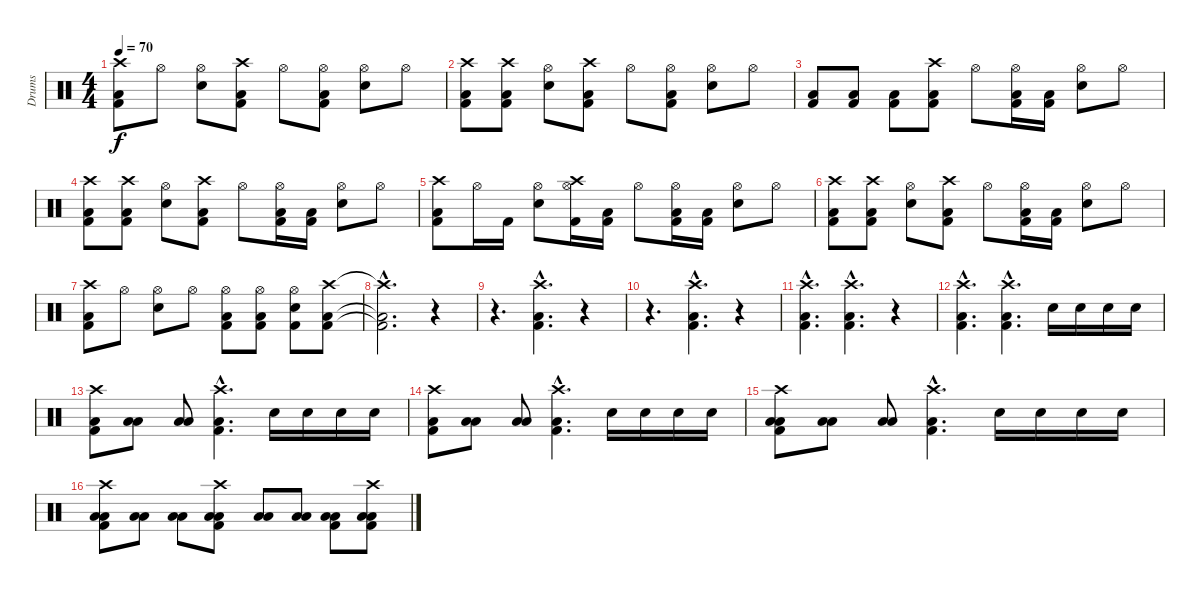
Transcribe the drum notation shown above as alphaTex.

\track ("Drums" "Drums") {instrument percussion}
\staff {score}
\articulation defaults
\ts (4 4)
\tempo 70
\clef neutral
\ks c
("Crash high (hit)" "Low Floor Tom (hit)" "Kick (hit) 2").8{dy f} "Hi-Hat (open)".8 ("Hi-Hat (open)" "Snare (hit) 2").8 ("Crash high (hit)" "Low Floor Tom (hit)" "Kick (hit) 2").8 "Hi-Hat (open)".8 ("Hi-Hat (open)" "Low Floor Tom (hit)" "Kick (hit) 2").8 ("Hi-Hat (open)" "Snare (hit) 2").8 "Hi-Hat (open)".8 |
("Crash high (hit)" "Low Floor Tom (hit)" "Kick (hit) 2").8 ("Crash high (hit)" "Low Floor Tom (hit)" "Kick (hit) 2").8 ("Hi-Hat (open)" "Snare (hit) 2").8 ("Crash high (hit)" "Low Floor Tom (hit)" "Kick (hit) 2").8 "Hi-Hat (open)".8 ("Hi-Hat (open)" "Low Floor Tom (hit)" "Kick (hit) 2").8 ("Hi-Hat (open)" "Snare (hit) 2").8 "Hi-Hat (open)".8 |
("Low Floor Tom (hit)" "Kick (hit) 2").8 ("Low Floor Tom (hit)" "Kick (hit) 2").8 ("Low Floor Tom (hit)" "Kick (hit) 2").8 ("Crash high (hit)" "Low Floor Tom (hit)" "Kick (hit) 2").8 "Hi-Hat (open)".8 ("Hi-Hat (open)" "Low Floor Tom (hit)" "Kick (hit) 2").16 ("Low Floor Tom (hit)" "Kick (hit) 2").16 ("Hi-Hat (open)" "Snare (hit) 2").8 "Hi-Hat (open)".8 |
("Crash high (hit)" "Low Floor Tom (hit)" "Kick (hit) 2").8 ("Crash high (hit)" "Low Floor Tom (hit)" "Kick (hit) 2").8 ("Hi-Hat (open)" "Snare (hit) 2").8 ("Crash high (hit)" "Low Floor Tom (hit)" "Kick (hit) 2").8 "Hi-Hat (open)".8 ("Hi-Hat (open)" "Low Floor Tom (hit)" "Kick (hit) 2").16 ("Low Floor Tom (hit)" "Kick (hit) 2").16 ("Hi-Hat (open)" "Snare (hit) 2").8 "Hi-Hat (open)".8 |
("Crash high (hit)" "Low Floor Tom (hit)" "Kick (hit) 2").8 "Hi-Hat (open)".16 "Kick (hit) 2".16 ("Hi-Hat (open)" "Snare (hit) 2").8 ("Crash high (hit)" "Hi-Hat (open)" "Kick (hit) 2").16 ("Low Floor Tom (hit)" "Kick (hit) 2").16 "Hi-Hat (open)".8 ("Hi-Hat (open)" "Low Floor Tom (hit)" "Kick (hit) 2").16 ("Low Floor Tom (hit)" "Kick (hit) 2").16 ("Hi-Hat (open)" "Snare (hit) 2").8 "Hi-Hat (open)".8 |
("Crash high (hit)" "Low Floor Tom (hit)" "Kick (hit) 2").8 ("Crash high (hit)" "Low Floor Tom (hit)" "Kick (hit) 2").8 ("Hi-Hat (open)" "Snare (hit) 2").8 ("Crash high (hit)" "Low Floor Tom (hit)" "Kick (hit) 2").8 "Hi-Hat (open)".8 ("Hi-Hat (open)" "Low Floor Tom (hit)" "Kick (hit) 2").16 ("Low Floor Tom (hit)" "Kick (hit) 2").16 ("Hi-Hat (open)" "Snare (hit) 2").8 "Hi-Hat (open)".8 |
("Crash high (hit)" "Low Floor Tom (hit)" "Kick (hit) 2").8 "Hi-Hat (open)".8 ("Hi-Hat (open)" "Snare (hit) 2").8 "Hi-Hat (open)".8 ("Hi-Hat (open)" "Low Floor Tom (hit)" "Kick (hit) 2").8 ("Hi-Hat (open)" "Low Floor Tom (hit)" "Kick (hit) 2").8 ("Hi-Hat (open)" "Snare (hit) 2" "Kick (hit) 2").8 ("Crash high (hit)" "Low Floor Tom (hit)" "Kick (hit) 2").8 |
("Crash high (hit)"{hac t} "Low Floor Tom (hit)"{hac t} "Kick (hit) 2"{hac t}).2{d} r.4 |
r.4{d} ("Crash high (hit)"{hac} "Low Floor Tom (hit)"{hac} "Kick (hit) 2"{hac}).4{d} r.4 |
r.4{d} ("Crash high (hit)"{hac} "Low Floor Tom (hit)"{hac} "Kick (hit) 2"{hac}).4{d} r.4 |
("Crash high (hit)"{hac} "Low Floor Tom (hit)"{hac} "Kick (hit) 2"{hac}).4{d} ("Crash high (hit)"{hac} "Low Floor Tom (hit)"{hac} "Kick (hit) 2"{hac}).4{d} r.4 |
("Crash high (hit)"{hac} "Low Floor Tom (hit)"{hac} "Kick (hit) 2"{hac}).4{d} ("Crash high (hit)"{hac} "Low Floor Tom (hit)"{hac} "Kick (hit) 2"{hac}).4{d} "Snare (hit) 2".16 "Snare (hit) 2".16 "Snare (hit) 2".16 "Snare (hit) 2".16 |
("Crash high (hit)" "Low Floor Tom (hit)" "Kick (hit) 2").8 ("Low Floor Tom (hit)" "Low Tom (hit)").8 ("Low Floor Tom (hit)" "Low Tom (hit)").8 ("Crash high (hit)"{hac} "Low Floor Tom (hit)"{hac} "Kick (hit) 2"{hac}).4{d} "Snare (hit) 2".16 "Snare (hit) 2".16 "Snare (hit) 2".16 "Snare (hit) 2".16 |
("Crash high (hit)" "Low Floor Tom (hit)" "Kick (hit) 2").8 ("Low Floor Tom (hit)" "Low Tom (hit)").8 ("Low Floor Tom (hit)" "Low Tom (hit)").8 ("Crash high (hit)"{hac} "Low Floor Tom (hit)"{hac} "Kick (hit) 2"{hac}).4{d} "Snare (hit) 2".16 "Snare (hit) 2".16 "Snare (hit) 2".16 "Snare (hit) 2".16 |
("Crash high (hit)" "Low Floor Tom (hit)" "Low Tom (hit)" "Kick (hit) 2").8 ("Low Floor Tom (hit)" "Low Tom (hit)").8 ("Low Floor Tom (hit)" "Low Tom (hit)").8 ("Crash high (hit)"{hac} "Low Floor Tom (hit)"{hac} "Kick (hit) 2"{hac}).4{d} "Snare (hit) 2".16 "Snare (hit) 2".16 "Snare (hit) 2".16 "Snare (hit) 2".16 |
("Crash high (hit)" "Low Floor Tom (hit)" "Low Tom (hit)" "Kick (hit) 2").8 ("Low Floor Tom (hit)" "Low Tom (hit)").8 ("Low Floor Tom (hit)" "Low Tom (hit)").8 ("Crash high (hit)" "Low Floor Tom (hit)" "Low Tom (hit)" "Kick (hit) 2").8 ("Low Floor Tom (hit)" "Low Tom (hit)").8 ("Low Floor Tom (hit)" "Low Tom (hit)").8 ("Low Floor Tom (hit)" "Low Tom (hit)" "Kick (hit) 2").8 ("Crash high (hit)" "Low Floor Tom (hit)" "Low Tom (hit)" "Kick (hit) 2").8
